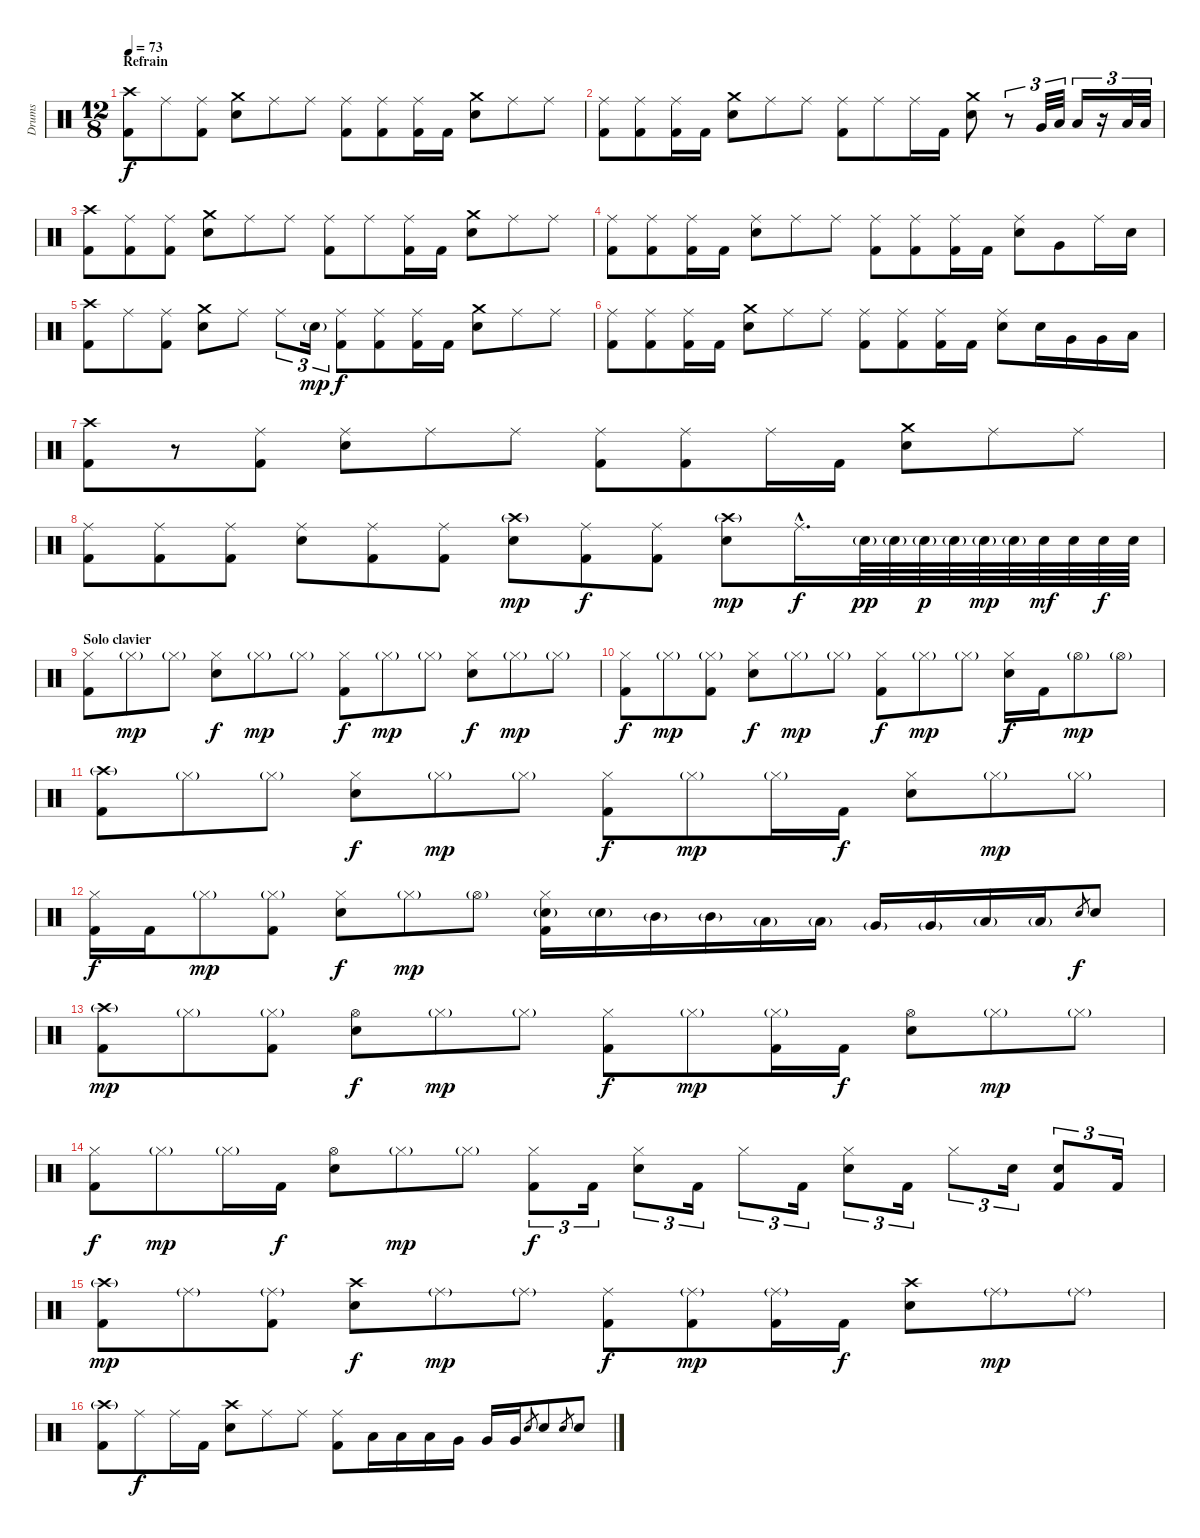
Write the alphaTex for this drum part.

\track ("Drums" "Drums") {instrument percussion}
\staff {score}
\articulation defaults
\ts (12 8)
\section ("" "Refrain")
\tempo 73
\clef neutral
\ks c
("Crash high (hit)" "Kick (hit) 2").8{dy f} "Ride (middle)".8 ("Ride (middle)" "Kick (hit) 2").8 ("Crash medium (hit)" "Electric Snare (hit)").8 "Ride (middle)".8 "Ride (middle)".8 ("Ride (middle)" "Kick (hit) 2").8 ("Ride (middle)" "Kick (hit) 2").8 ("Ride (middle)" "Kick (hit) 2").16 "Kick (hit) 2".16 ("Crash medium (hit)" "Electric Snare (hit)").8 "Ride (middle)".8 "Ride (middle)".8 |
("Ride (middle)" "Kick (hit) 2").8 ("Ride (middle)" "Kick (hit) 2").8 ("Ride (middle)" "Kick (hit) 2").16 "Kick (hit) 2".16 ("Crash medium (hit)" "Electric Snare (hit)").8 "Ride (middle)".8 "Ride (middle)".8 ("Ride (middle)" "Kick (hit) 2").8 "Ride (middle)".8 "Ride (middle)".16 "Kick (hit) 2".16 ("Crash medium (hit)" "Electric Snare (hit)").8 r.8{tu (3 2)} "Very Low Tom (hit)".32{tu (3 2)} "Low Floor Tom (hit)".32{tu (3 2)} "Low Floor Tom (hit)".16{tu (3 2)} r.16{tu (3 2)} "Low Floor Tom (hit)".32{tu (3 2)} "Low Floor Tom (hit)".32{tu (3 2)} |
("Crash high (hit)" "Kick (hit) 2").8 ("Ride (middle)" "Kick (hit) 2").8 ("Ride (middle)" "Kick (hit) 2").8 ("Crash medium (hit)" "Electric Snare (hit)").8 "Ride (middle)".8 "Ride (middle)".8 ("Ride (middle)" "Kick (hit) 2").8 "Ride (middle)".8 ("Ride (middle)" "Kick (hit) 2").16 "Kick (hit) 2".16 ("Crash medium (hit)" "Electric Snare (hit)").8 "Ride (middle)".8 "Ride (middle)".8 |
("Ride (middle)" "Kick (hit) 2").8 ("Ride (middle)" "Kick (hit) 2").8 ("Ride (middle)" "Kick (hit) 2").16 "Kick (hit) 2".16 ("Electric Snare (hit)" "Ride (middle)").8 "Ride (middle)".8 "Ride (middle)".8 ("Ride (middle)" "Kick (hit) 2").8 ("Ride (middle)" "Kick (hit) 2").8 ("Ride (middle)" "Kick (hit) 2").16 "Kick (hit) 2".16 ("Electric Snare (hit)" "Ride (middle)").8 "Very Low Tom (hit)".8 "Ride (middle)".16 "Electric Snare (hit)".16 |
("Crash high (hit)" "Kick (hit) 2").8 "Ride (middle)".8 ("Ride (middle)" "Kick (hit) 2").8 ("Crash medium (hit)" "Electric Snare (hit)").8 "Ride (middle)".8 "Ride (middle)".8{tu (3 2)} "Electric Snare (hit)"{g}.16{tu (3 2) dy mp} ("Ride (middle)" "Kick (hit) 2").8{dy f} ("Ride (middle)" "Kick (hit) 2").8 ("Ride (middle)" "Kick (hit) 2").16 "Kick (hit) 2".16 ("Crash medium (hit)" "Electric Snare (hit)").8 "Ride (middle)".8 "Ride (middle)".8 |
("Ride (middle)" "Kick (hit) 2").8 ("Ride (middle)" "Kick (hit) 2").8 ("Ride (middle)" "Kick (hit) 2").16 "Kick (hit) 2".16 ("Crash medium (hit)" "Electric Snare (hit)").8 "Ride (middle)".8 "Ride (middle)".8 ("Ride (middle)" "Kick (hit) 2").8 ("Ride (middle)" "Kick (hit) 2").8 ("Ride (middle)" "Kick (hit) 2").16 "Kick (hit) 2".16 ("Electric Snare (hit)" "Ride (middle)").8 "Electric Snare (hit)".16 "Very Low Tom (hit)".16 "Very Low Tom (hit)".16 "Low Floor Tom (hit)".16 |
("Crash high (hit)" "Kick (hit) 2").8 r.8 ("Ride (middle)" "Kick (hit) 2").8 ("Electric Snare (hit)" "Ride (middle)").8 "Ride (middle)".8 "Ride (middle)".8 ("Ride (middle)" "Kick (hit) 2").8 ("Ride (middle)" "Kick (hit) 2").8 "Ride (middle)".16 "Kick (hit) 2".16 ("Crash medium (hit)" "Electric Snare (hit)").8 "Ride (middle)".8 "Ride (middle)".8 |
("Ride (middle)" "Kick (hit) 2").8 ("Ride (middle)" "Kick (hit) 2").8 ("Ride (middle)" "Kick (hit) 2").8 ("Electric Snare (hit)" "Ride (middle)").8 ("Ride (middle)" "Kick (hit) 2").8 ("Ride (middle)" "Kick (hit) 2").8 ("Electric Snare (hit)" "Crash high (hit)"{g}).8{dy mp} ("Ride (middle)" "Kick (hit) 2").8{dy f} ("Ride (middle)" "Kick (hit) 2").8 ("Electric Snare (hit)" "Crash high (hit)"{g}).8{dy mp} "Ride (middle)"{hac}.16{d dy f} "Electric Snare (hit)"{g}.64{dy pp} "Electric Snare (hit)"{g}.64 "Electric Snare (hit)"{g}.64{dy p} "Electric Snare (hit)"{g}.64 "Electric Snare (hit)"{g}.64{dy mp} "Electric Snare (hit)"{g}.64 "Electric Snare (hit)".64{dy mf} "Electric Snare (hit)".64 "Electric Snare (hit)".64{dy f} "Electric Snare (hit)".64 |
\section ("" "Solo clavier")
("Hi-Hat (closed)" "Kick (hit) 2").8 "Hi-Hat (closed)"{g}.8{dy mp} "Hi-Hat (closed)"{g}.8 ("Hi-Hat (closed)" "Electric Snare (hit)").8{dy f volume 7} "Hi-Hat (closed)"{g}.8{dy mp volume 10} "Hi-Hat (closed)"{g}.8 ("Hi-Hat (closed)" "Kick (hit) 2").8{dy f} "Hi-Hat (closed)"{g}.8{dy mp} "Hi-Hat (closed)"{g}.8 ("Hi-Hat (closed)" "Electric Snare (hit)").8{dy f volume 7} "Hi-Hat (closed)"{g}.8{dy mp volume 10} "Hi-Hat (closed)"{g}.8 |
("Hi-Hat (closed)" "Kick (hit) 2").8{dy f} "Hi-Hat (closed)"{g}.8{dy mp} ("Hi-Hat (closed)"{g} "Kick (hit) 2").8 ("Hi-Hat (closed)" "Electric Snare (hit)").8{dy f volume 7} "Hi-Hat (closed)"{g}.8{dy mp volume 10} "Hi-Hat (closed)"{g}.8 ("Hi-Hat (closed)" "Kick (hit) 2").8{dy f} "Hi-Hat (closed)"{g}.8{dy mp} "Hi-Hat (closed)"{g}.8 ("Hi-Hat (closed)" "Electric Snare (hit)").16{dy f volume 7} "Kick (hit) 2".16 "Hi-Hat (open)"{g}.8{dy mp volume 10} "Hi-Hat (open)"{g}.8 |
("Crash high (hit)"{g} "Kick (hit) 2").8 "Hi-Hat (closed)"{g}.8 "Hi-Hat (closed)"{g}.8 ("Hi-Hat (closed)" "Electric Snare (hit)").8{dy f volume 7} "Hi-Hat (closed)"{g}.8{dy mp volume 10} "Hi-Hat (closed)"{g}.8 ("Hi-Hat (closed)" "Kick (hit) 2").8{dy f} "Hi-Hat (closed)"{g}.8{dy mp} "Hi-Hat (closed)"{g}.16 "Kick (hit) 2".16{dy f} ("Hi-Hat (closed)" "Electric Snare (hit)").8{volume 7} "Hi-Hat (closed)"{g}.8{dy mp volume 10} "Hi-Hat (closed)"{g}.8 |
("Hi-Hat (closed)" "Kick (hit) 2").16{dy f} "Kick (hit) 2".16 "Hi-Hat (closed)"{g}.8{dy mp} ("Hi-Hat (closed)"{g} "Kick (hit) 2").8 ("Hi-Hat (closed)" "Electric Snare (hit)").8{dy f volume 7} "Hi-Hat (closed)"{g}.8{dy mp volume 10} "Hi-Hat (open)"{g}.8 ("Hi-Hat (closed)" "Electric Snare (hit)"{g} "Kick (hit) 2").16 "Electric Snare (hit)"{g}.16 "Mid Tom (hit)"{g}.16 "Mid Tom (hit)"{g}.16 "Low Tom (hit)"{g}.16 "Low Tom (hit)"{g}.16 "Very Low Tom (hit)"{g}.16 "Very Low Tom (hit)"{g}.16 "Low Floor Tom (hit)"{g}.16 "Low Floor Tom (hit)"{g}.16 "Electric Snare (hit)".8{gr dy f} "Electric Snare (hit)".8 |
("Crash high (hit)"{g} "Kick (hit) 2").8{dy mp} "Hi-Hat (closed)"{g}.8 ("Hi-Hat (closed)"{g} "Kick (hit) 2").8 ("Hi-Hat (open)" "Electric Snare (hit)").8{dy f volume 7} "Hi-Hat (closed)"{g}.8{dy mp volume 10} "Hi-Hat (closed)"{g}.8 ("Hi-Hat (closed)" "Kick (hit) 2").8{dy f} "Hi-Hat (closed)"{g}.8{dy mp} ("Hi-Hat (closed)"{g} "Kick (hit) 2").16 "Kick (hit) 2".16{dy f} ("Hi-Hat (open)" "Electric Snare (hit)").8{volume 7} "Hi-Hat (closed)"{g}.8{dy mp volume 10} "Hi-Hat (closed)"{g}.8 |
("Hi-Hat (closed)" "Kick (hit) 2").8{dy f} "Hi-Hat (closed)"{g}.8{dy mp} "Hi-Hat (closed)"{g}.16 "Kick (hit) 2".16{dy f} ("Hi-Hat (open)" "Electric Snare (hit)").8{volume 7} "Hi-Hat (closed)"{g}.8{dy mp volume 10} "Hi-Hat (closed)"{g}.8 ("Hi-Hat (closed)" "Kick (hit) 2").8{tu (3 2) dy f} "Kick (hit) 2".16{tu (3 2)} ("Hi-Hat (closed)" "Electric Snare (hit)").8{tu (3 2)} "Kick (hit) 2".16{tu (3 2)} "Hi-Hat (closed)".8{tu (3 2)} "Kick (hit) 2".16{tu (3 2)} ("Hi-Hat (closed)" "Electric Snare (hit)").8{tu (3 2)} "Kick (hit) 2".16{tu (3 2)} "Hi-Hat (closed)".8{tu (3 2)} "Electric Snare (hit)".16{tu (3 2)} ("Electric Snare (hit)" "Kick (hit) 2").8{tu (3 2)} "Kick (hit) 2".16{tu (3 2)} |
("Crash high (hit)"{g} "Kick (hit) 2").8{dy mp} "Ride (middle)"{g}.8 ("Ride (middle)"{g} "Kick (hit) 2").8 ("Electric Snare (hit)" "Crash high (hit)").8{dy f volume 7} "Ride (middle)"{g}.8{dy mp} "Ride (middle)"{g}.8{volume 10} ("Ride (middle)" "Kick (hit) 2").8{dy f} ("Ride (middle)"{g} "Kick (hit) 2").8{dy mp} ("Ride (middle)"{g} "Kick (hit) 2").16 "Kick (hit) 2".16{dy f} ("Electric Snare (hit)" "Crash high (hit)").8{volume 7} "Ride (middle)"{g}.8{dy mp} "Ride (middle)"{g}.8{volume 10} |
("Crash high (hit)"{g} "Kick (hit) 2").8 "Ride (middle)".8{dy f} "Ride (middle)".16 "Kick (hit) 2".16 ("Electric Snare (hit)" "Crash high (hit)").8{volume 7} "Ride (middle)".8 "Ride (middle)".8{volume 10} ("Ride (middle)" "Kick (hit) 2").8 "Low Tom (hit)".16 "Low Tom (hit)".16 "Low Tom (hit)".16 "Very Low Tom (hit)".16 "Very Low Tom (hit)".16 "Very Low Tom (hit)".16 "Snare (hit) 2".8{gr} "Snare (hit) 2".8 "Snare (hit) 2".8{gr} "Snare (hit) 2".8
